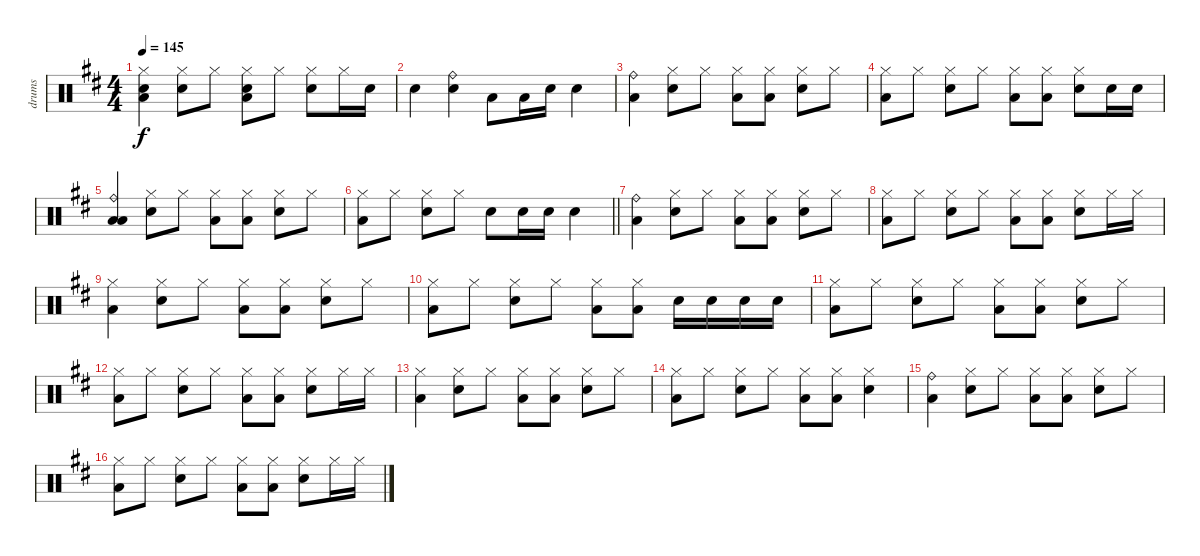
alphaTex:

\track ("drums" "drums") {instrument percussion}
\staff {score}
\articulation defaults
\ts (4 4)
\tempo 145
\clef neutral
\ks d
("Hi-Hat (closed)" "Electric Snare (hit)" "Low Floor Tom (hit)").4{dy f} ("Hi-Hat (closed)" "Electric Snare (hit)").8 "Hi-Hat (closed)".8 ("Hi-Hat (closed)" "Electric Snare (hit)" "Low Floor Tom (hit)").8 "Hi-Hat (closed)".8 ("Hi-Hat (closed)" "Electric Snare (hit)").8 "Hi-Hat (closed)".16 "Electric Snare (hit)".16 |
"Electric Snare (hit)".4 ("Ride (bell)" "Electric Snare (hit)").4 "Low Floor Tom (hit)".8 "Low Floor Tom (hit)".16 "Electric Snare (hit)".16 "Electric Snare (hit)".4 |
("Ride (bell)" "Low Floor Tom (hit)").4 ("Hi-Hat (closed)" "Electric Snare (hit)").8 "Hi-Hat (closed)".8 ("Hi-Hat (closed)" "Low Floor Tom (hit)").8 ("Hi-Hat (closed)" "Low Floor Tom (hit)").8 ("Hi-Hat (closed)" "Electric Snare (hit)").8 "Hi-Hat (closed)".8 |
("Hi-Hat (closed)" "Low Floor Tom (hit)").8 "Hi-Hat (closed)".8 ("Hi-Hat (closed)" "Electric Snare (hit)").8 "Hi-Hat (closed)".8 ("Hi-Hat (closed)" "Low Floor Tom (hit)").8 ("Hi-Hat (closed)" "Low Floor Tom (hit)").8 ("Hi-Hat (closed)" "Electric Snare (hit)").8 "Electric Snare (hit)".16 "Electric Snare (hit)".16 |
("Ride (bell)" "Low Tom (hit)" "Low Floor Tom (hit)").4 ("Hi-Hat (closed)" "Electric Snare (hit)").8 "Hi-Hat (closed)".8 ("Hi-Hat (closed)" "Low Floor Tom (hit)").8 ("Hi-Hat (closed)" "Low Floor Tom (hit)").8 ("Hi-Hat (closed)" "Electric Snare (hit)").8 "Hi-Hat (closed)".8 |
\barLineRight lightlight
("Hi-Hat (closed)" "Low Floor Tom (hit)").8 "Hi-Hat (closed)".8 ("Hi-Hat (closed)" "Electric Snare (hit)").8 "Hi-Hat (closed)".8 "Electric Snare (hit)".8 "Electric Snare (hit)".16 "Electric Snare (hit)".16 "Electric Snare (hit)".4 |
("Ride (bell)" "Low Floor Tom (hit)").4 ("Hi-Hat (closed)" "Electric Snare (hit)").8 "Hi-Hat (closed)".8 ("Hi-Hat (closed)" "Low Floor Tom (hit)").8 ("Hi-Hat (closed)" "Low Floor Tom (hit)").8 ("Hi-Hat (closed)" "Electric Snare (hit)").8 "Hi-Hat (closed)".8 |
("Hi-Hat (closed)" "Low Floor Tom (hit)").8 "Hi-Hat (closed)".8 ("Hi-Hat (closed)" "Electric Snare (hit)").8 "Hi-Hat (closed)".8 ("Hi-Hat (closed)" "Low Floor Tom (hit)").8 ("Hi-Hat (closed)" "Low Floor Tom (hit)").8 ("Hi-Hat (closed)" "Electric Snare (hit)").8 "Hi-Hat (closed)".16 "Hi-Hat (closed)".16 |
("Hi-Hat (closed)" "Low Floor Tom (hit)").4 ("Hi-Hat (closed)" "Electric Snare (hit)").8 "Hi-Hat (closed)".8 ("Hi-Hat (closed)" "Low Floor Tom (hit)").8 ("Hi-Hat (closed)" "Low Floor Tom (hit)").8 ("Hi-Hat (closed)" "Electric Snare (hit)").8 "Hi-Hat (closed)".8 |
("Hi-Hat (closed)" "Low Floor Tom (hit)").8 "Hi-Hat (closed)".8 ("Hi-Hat (closed)" "Electric Snare (hit)").8 "Hi-Hat (closed)".8 ("Hi-Hat (closed)" "Low Floor Tom (hit)").8 ("Hi-Hat (closed)" "Low Floor Tom (hit)").8 "Electric Snare (hit)".16 "Electric Snare (hit)".16 "Electric Snare (hit)".16 "Electric Snare (hit)".16 |
("Hi-Hat (closed)" "Low Floor Tom (hit)").8 "Hi-Hat (closed)".8 ("Hi-Hat (closed)" "Electric Snare (hit)").8 "Hi-Hat (closed)".8 ("Hi-Hat (closed)" "Low Floor Tom (hit)").8 ("Hi-Hat (closed)" "Low Floor Tom (hit)").8 ("Hi-Hat (closed)" "Electric Snare (hit)").8 "Hi-Hat (closed)".8 |
("Hi-Hat (closed)" "Low Floor Tom (hit)").8 "Hi-Hat (closed)".8 ("Hi-Hat (closed)" "Electric Snare (hit)").8 "Hi-Hat (closed)".8 ("Hi-Hat (closed)" "Low Floor Tom (hit)").8 ("Hi-Hat (closed)" "Low Floor Tom (hit)").8 ("Hi-Hat (closed)" "Electric Snare (hit)").8 "Hi-Hat (closed)".16 "Hi-Hat (closed)".16 |
("Hi-Hat (closed)" "Low Floor Tom (hit)").4 ("Hi-Hat (closed)" "Electric Snare (hit)").8 "Hi-Hat (closed)".8 ("Hi-Hat (closed)" "Low Floor Tom (hit)").8 ("Hi-Hat (closed)" "Low Floor Tom (hit)").8 ("Hi-Hat (closed)" "Electric Snare (hit)").8 "Hi-Hat (closed)".8 |
("Hi-Hat (closed)" "Low Floor Tom (hit)").8 "Hi-Hat (closed)".8 ("Hi-Hat (closed)" "Electric Snare (hit)").8 "Hi-Hat (closed)".8 ("Hi-Hat (closed)" "Low Floor Tom (hit)").8 ("Hi-Hat (closed)" "Low Floor Tom (hit)").8 ("Hi-Hat (closed)" "Electric Snare (hit)").4 |
("Ride (bell)" "Low Floor Tom (hit)").4 ("Hi-Hat (closed)" "Electric Snare (hit)").8 "Hi-Hat (closed)".8 ("Hi-Hat (closed)" "Low Floor Tom (hit)").8 ("Hi-Hat (closed)" "Low Floor Tom (hit)").8 ("Hi-Hat (closed)" "Electric Snare (hit)").8 "Hi-Hat (closed)".8 |
("Hi-Hat (closed)" "Low Floor Tom (hit)").8 "Hi-Hat (closed)".8 ("Hi-Hat (closed)" "Electric Snare (hit)").8 "Hi-Hat (closed)".8 ("Hi-Hat (closed)" "Low Floor Tom (hit)").8 ("Hi-Hat (closed)" "Low Floor Tom (hit)").8 ("Hi-Hat (closed)" "Electric Snare (hit)").8 "Hi-Hat (closed)".16 "Hi-Hat (closed)".16
